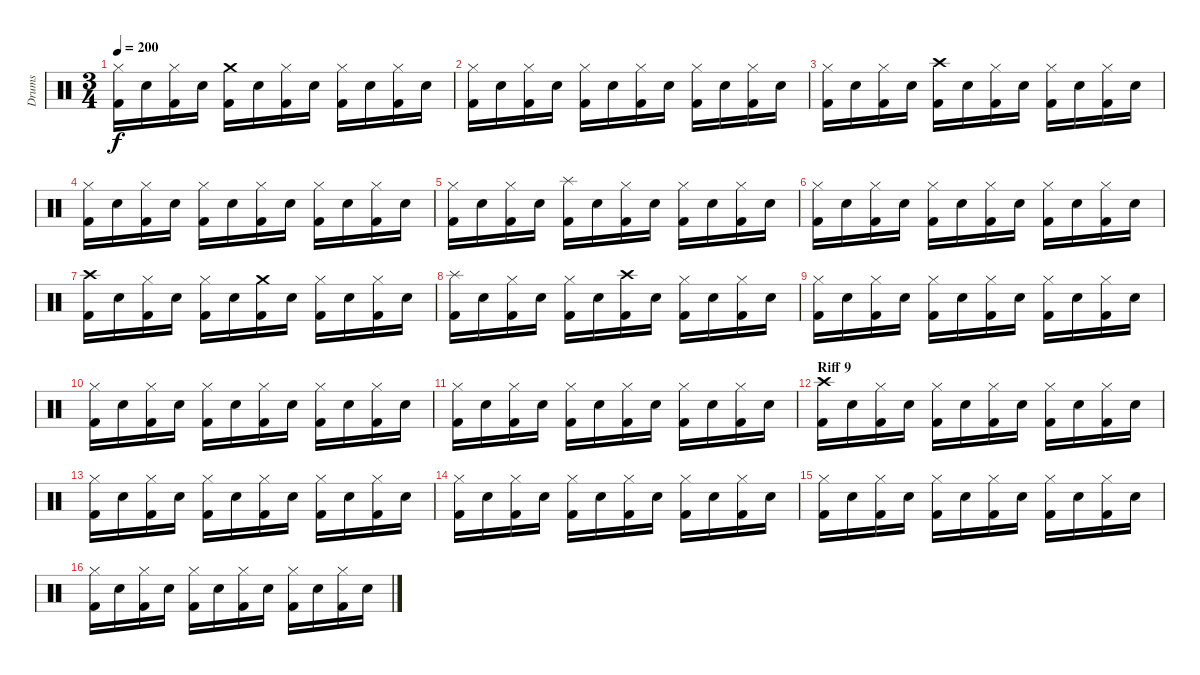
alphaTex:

\track ("Drums" "Drums") {instrument percussion}
\staff {score}
\articulation defaults
\ts (3 4)
\tempo 200
\clef neutral
\ks c
("Hi-Hat (closed)" "Kick (hit) 2").16{dy f} "Electric Snare (hit)".16 ("Hi-Hat (closed)" "Kick (hit) 2").16 "Electric Snare (hit)".16 ("Crash medium (hit)" "Kick (hit) 2").16 "Electric Snare (hit)".16 ("Hi-Hat (closed)" "Kick (hit) 2").16 "Electric Snare (hit)".16 ("Hi-Hat (closed)" "Kick (hit) 2").16 "Electric Snare (hit)".16 ("Hi-Hat (closed)" "Kick (hit) 2").16 "Electric Snare (hit)".16 |
("Hi-Hat (closed)" "Kick (hit) 2").16 "Electric Snare (hit)".16 ("Hi-Hat (closed)" "Kick (hit) 2").16 "Electric Snare (hit)".16 ("Hi-Hat (closed)" "Kick (hit) 2").16 "Electric Snare (hit)".16 ("Hi-Hat (closed)" "Kick (hit) 2").16 "Electric Snare (hit)".16 ("Hi-Hat (closed)" "Kick (hit) 2").16 "Electric Snare (hit)".16 ("Hi-Hat (closed)" "Kick (hit) 2").16 "Electric Snare (hit)".16 |
("Hi-Hat (closed)" "Kick (hit) 2").16 "Electric Snare (hit)".16 ("Hi-Hat (closed)" "Kick (hit) 2").16 "Electric Snare (hit)".16 ("Crash high (hit)" "Kick (hit) 2").16 "Electric Snare (hit)".16 ("Hi-Hat (closed)" "Kick (hit) 2").16 "Electric Snare (hit)".16 ("Hi-Hat (closed)" "Kick (hit) 2").16 "Electric Snare (hit)".16 ("Hi-Hat (closed)" "Kick (hit) 2").16 "Electric Snare (hit)".16 |
("Hi-Hat (closed)" "Kick (hit) 2").16 "Electric Snare (hit)".16 ("Hi-Hat (closed)" "Kick (hit) 2").16 "Electric Snare (hit)".16 ("Hi-Hat (closed)" "Kick (hit) 2").16 "Electric Snare (hit)".16 ("Hi-Hat (closed)" "Kick (hit) 2").16 "Electric Snare (hit)".16 ("Hi-Hat (closed)" "Kick (hit) 2").16 "Electric Snare (hit)".16 ("Hi-Hat (closed)" "Kick (hit) 2").16 "Electric Snare (hit)".16 |
("Hi-Hat (closed)" "Kick (hit) 2").16 "Electric Snare (hit)".16 ("Hi-Hat (closed)" "Kick (hit) 2").16 "Electric Snare (hit)".16 ("Splash (hit)" "Kick (hit) 2").16 "Electric Snare (hit)".16 ("Hi-Hat (closed)" "Kick (hit) 2").16 "Electric Snare (hit)".16 ("Hi-Hat (closed)" "Kick (hit) 2").16 "Electric Snare (hit)".16 ("Hi-Hat (closed)" "Kick (hit) 2").16 "Electric Snare (hit)".16 |
("Hi-Hat (closed)" "Kick (hit) 2").16 "Electric Snare (hit)".16 ("Hi-Hat (closed)" "Kick (hit) 2").16 "Electric Snare (hit)".16 ("Hi-Hat (closed)" "Kick (hit) 2").16 "Electric Snare (hit)".16 ("Hi-Hat (closed)" "Kick (hit) 2").16 "Electric Snare (hit)".16 ("Hi-Hat (closed)" "Kick (hit) 2").16 "Electric Snare (hit)".16 ("Hi-Hat (closed)" "Kick (hit) 2").16 "Electric Snare (hit)".16 |
("Crash high (hit)" "Kick (hit) 2").16 "Electric Snare (hit)".16 ("Hi-Hat (closed)" "Kick (hit) 2").16 "Electric Snare (hit)".16 ("Hi-Hat (closed)" "Kick (hit) 2").16 "Electric Snare (hit)".16 ("Crash medium (hit)" "Kick (hit) 2").16 "Electric Snare (hit)".16 ("Hi-Hat (closed)" "Kick (hit) 2").16 "Electric Snare (hit)".16 ("Hi-Hat (closed)" "Kick (hit) 2").16 "Electric Snare (hit)".16 |
("Splash (hit)" "Kick (hit) 2").16 "Electric Snare (hit)".16 ("Hi-Hat (closed)" "Kick (hit) 2").16 "Electric Snare (hit)".16 ("Hi-Hat (closed)" "Kick (hit) 2").16 "Electric Snare (hit)".16 ("Crash high (hit)" "Kick (hit) 2").16 "Electric Snare (hit)".16 ("Hi-Hat (closed)" "Kick (hit) 2").16 "Electric Snare (hit)".16 ("Hi-Hat (closed)" "Kick (hit) 2").16 "Electric Snare (hit)".16 |
("Hi-Hat (closed)" "Kick (hit) 2").16 "Electric Snare (hit)".16 ("Hi-Hat (closed)" "Kick (hit) 2").16 "Electric Snare (hit)".16 ("Hi-Hat (closed)" "Kick (hit) 2").16 "Electric Snare (hit)".16 ("Hi-Hat (closed)" "Kick (hit) 2").16 "Electric Snare (hit)".16 ("Hi-Hat (closed)" "Kick (hit) 2").16 "Electric Snare (hit)".16 ("Hi-Hat (closed)" "Kick (hit) 2").16 "Electric Snare (hit)".16 |
("Hi-Hat (closed)" "Kick (hit) 2").16 "Electric Snare (hit)".16 ("Hi-Hat (closed)" "Kick (hit) 2").16 "Electric Snare (hit)".16 ("Hi-Hat (closed)" "Kick (hit) 2").16 "Electric Snare (hit)".16 ("Hi-Hat (closed)" "Kick (hit) 2").16 "Electric Snare (hit)".16 ("Hi-Hat (closed)" "Kick (hit) 2").16 "Electric Snare (hit)".16 ("Hi-Hat (closed)" "Kick (hit) 2").16 "Electric Snare (hit)".16 |
("Hi-Hat (closed)" "Kick (hit) 2").16 "Electric Snare (hit)".16 ("Hi-Hat (closed)" "Kick (hit) 2").16 "Electric Snare (hit)".16 ("Hi-Hat (closed)" "Kick (hit) 2").16 "Electric Snare (hit)".16 ("Hi-Hat (closed)" "Kick (hit) 2").16 "Electric Snare (hit)".16 ("Hi-Hat (closed)" "Kick (hit) 2").16 "Electric Snare (hit)".16 ("Hi-Hat (closed)" "Kick (hit) 2").16 "Electric Snare (hit)".16 |
\section ("" "Riff 9")
("Crash high (hit)" "Kick (hit) 2").16 "Electric Snare (hit)".16 ("Hi-Hat (closed)" "Kick (hit) 2").16 "Electric Snare (hit)".16 ("Hi-Hat (closed)" "Kick (hit) 2").16 "Electric Snare (hit)".16 ("Hi-Hat (closed)" "Kick (hit) 2").16 "Electric Snare (hit)".16 ("Hi-Hat (closed)" "Kick (hit) 2").16 "Electric Snare (hit)".16 ("Hi-Hat (closed)" "Kick (hit) 2").16 "Electric Snare (hit)".16 |
("Hi-Hat (closed)" "Kick (hit) 2").16 "Electric Snare (hit)".16 ("Hi-Hat (closed)" "Kick (hit) 2").16 "Electric Snare (hit)".16 ("Hi-Hat (closed)" "Kick (hit) 2").16 "Electric Snare (hit)".16 ("Hi-Hat (closed)" "Kick (hit) 2").16 "Electric Snare (hit)".16 ("Hi-Hat (closed)" "Kick (hit) 2").16 "Electric Snare (hit)".16 ("Hi-Hat (closed)" "Kick (hit) 2").16 "Electric Snare (hit)".16 |
("Hi-Hat (closed)" "Kick (hit) 2").16 "Electric Snare (hit)".16 ("Hi-Hat (closed)" "Kick (hit) 2").16 "Electric Snare (hit)".16 ("Hi-Hat (closed)" "Kick (hit) 2").16 "Electric Snare (hit)".16 ("Hi-Hat (closed)" "Kick (hit) 2").16 "Electric Snare (hit)".16 ("Hi-Hat (closed)" "Kick (hit) 2").16 "Electric Snare (hit)".16 ("Hi-Hat (closed)" "Kick (hit) 2").16 "Electric Snare (hit)".16 |
("Hi-Hat (closed)" "Kick (hit) 2").16 "Electric Snare (hit)".16 ("Hi-Hat (closed)" "Kick (hit) 2").16 "Electric Snare (hit)".16 ("Hi-Hat (closed)" "Kick (hit) 2").16 "Electric Snare (hit)".16 ("Hi-Hat (closed)" "Kick (hit) 2").16 "Electric Snare (hit)".16 ("Hi-Hat (closed)" "Kick (hit) 2").16 "Electric Snare (hit)".16 ("Hi-Hat (closed)" "Kick (hit) 2").16 "Electric Snare (hit)".16 |
("Hi-Hat (closed)" "Kick (hit) 2").16 "Electric Snare (hit)".16 ("Hi-Hat (closed)" "Kick (hit) 2").16 "Electric Snare (hit)".16 ("Hi-Hat (closed)" "Kick (hit) 2").16 "Electric Snare (hit)".16 ("Hi-Hat (closed)" "Kick (hit) 2").16 "Electric Snare (hit)".16 ("Hi-Hat (closed)" "Kick (hit) 2").16 "Electric Snare (hit)".16 ("Hi-Hat (closed)" "Kick (hit) 2").16 "Electric Snare (hit)".16
